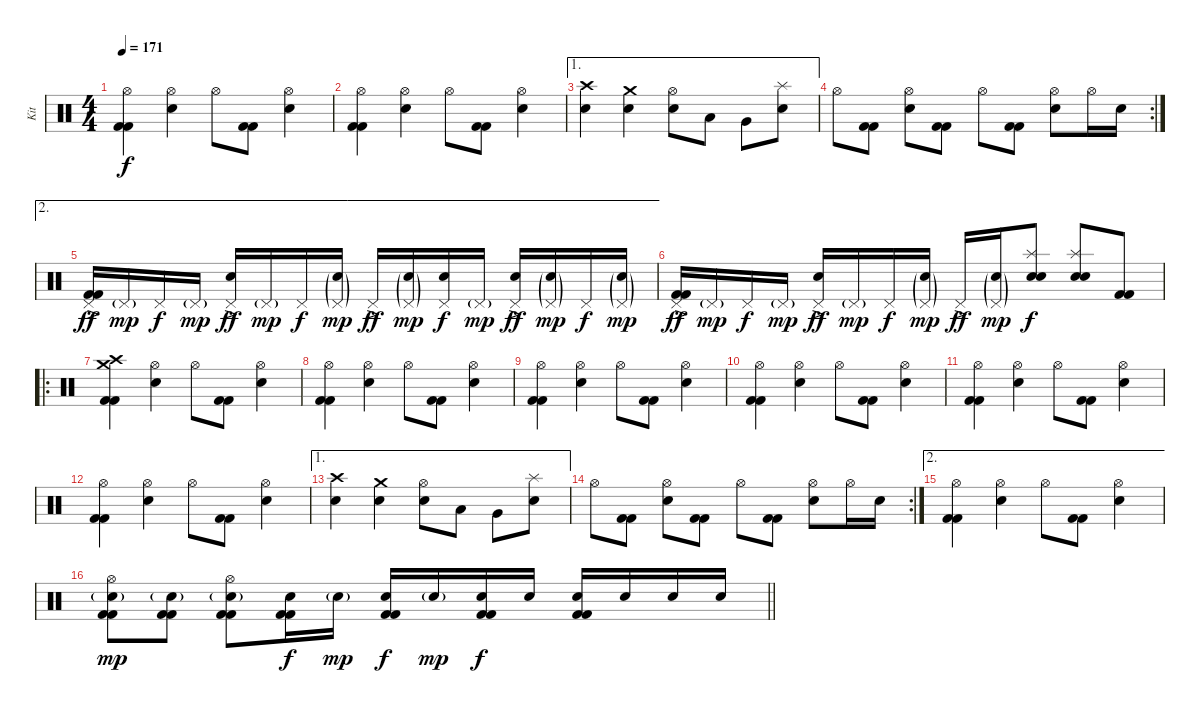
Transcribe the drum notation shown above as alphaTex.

\track ("Kit" "Kit") {instrument percussion}
\staff {score}
\articulation defaults
\ts (4 4)
\tempo 171
\clef neutral
\ks c
("Hi-Hat (open)" "Kick (hit) 2" "Kick (hit) 2").4{dy f} ("Hi-Hat (open)" "Electric Snare (hit)").4 "Hi-Hat (open)".8 ("Kick (hit) 2" "Kick (hit) 2").8 ("Hi-Hat (open)" "Electric Snare (hit)").4 |
("Hi-Hat (open)" "Kick (hit) 2" "Kick (hit) 2").4 ("Hi-Hat (open)" "Electric Snare (hit)").4 "Hi-Hat (open)".8 ("Kick (hit) 2" "Kick (hit) 2").8 ("Hi-Hat (open)" "Electric Snare (hit)").4 |
\ae 1
("Crash high (hit)" "Electric Snare (hit)").4 ("Crash medium (hit)" "Electric Snare (hit)").4 ("Hi-Hat (open)" "Electric Snare (hit)").8 "Low Tom (hit)".8 "Very Low Tom (hit)".8 ("Splash (hit)" "Electric Snare (hit)").8 |
\rc 2 "Hi-Hat (open)".8
("Kick (hit) 2" "Kick (hit) 2").8 ("Hi-Hat (open)" "Electric Snare (hit)").8 ("Kick (hit) 2" "Kick (hit) 2").8 "Hi-Hat (open)".8 ("Kick (hit) 2" "Kick (hit) 2").8 ("Hi-Hat (open)" "Electric Snare (hit)").8 "Hi-Hat (open)".16 "Electric Snare (hit)".16 |
\ae 2
("Pedal Hi-Hat (hit)"{ac} "Kick (hit) 2" "Kick (hit) 2").16{dy ff} "Pedal Hi-Hat (hit)"{g}.16{dy mp} "Pedal Hi-Hat (hit)".16{dy f} "Pedal Hi-Hat (hit)"{g}.16{dy mp} ("Pedal Hi-Hat (hit)"{ac} "Electric Snare (hit)").16{dy ff} "Pedal Hi-Hat (hit)"{g}.16{dy mp} "Pedal Hi-Hat (hit)".16{dy f} ("Pedal Hi-Hat (hit)"{g} "Electric Snare (hit)"{g}).16{dy mp} "Pedal Hi-Hat (hit)"{ac}.16{dy ff} ("Pedal Hi-Hat (hit)"{g} "Electric Snare (hit)"{g}).16{dy mp} ("Pedal Hi-Hat (hit)" "Electric Snare (hit)").16{dy f} "Pedal Hi-Hat (hit)"{g}.16{dy mp} ("Pedal Hi-Hat (hit)"{ac} "Electric Snare (hit)").16{dy ff} ("Pedal Hi-Hat (hit)"{g} "Electric Snare (hit)"{g}).16{dy mp} "Pedal Hi-Hat (hit)".16{dy f} ("Pedal Hi-Hat (hit)"{g} "Electric Snare (hit)"{g}).16{dy mp} |
("Pedal Hi-Hat (hit)"{ac} "Kick (hit) 2" "Kick (hit) 2").16{dy ff} "Pedal Hi-Hat (hit)"{g}.16{dy mp} "Pedal Hi-Hat (hit)".16{dy f} "Pedal Hi-Hat (hit)"{g}.16{dy mp} ("Pedal Hi-Hat (hit)"{ac} "Electric Snare (hit)").16{dy ff} "Pedal Hi-Hat (hit)"{g}.16{dy mp} "Pedal Hi-Hat (hit)".16{dy f} ("Pedal Hi-Hat (hit)"{g} "Electric Snare (hit)"{g}).16{dy mp} "Pedal Hi-Hat (hit)"{ac}.16{dy ff} ("Pedal Hi-Hat (hit)"{g} "Electric Snare (hit)"{g}).16{dy mp} ("Splash (hit)" "Snare (hit) 2" "Electric Snare (hit)").8{bd 240 dy f} ("Splash (hit)" "Snare (hit) 2" "Electric Snare (hit)").8{bd 240} ("Kick (hit) 2" "Kick (hit) 2").8 |
\ro
("Crash medium (hit)" "Crash high (hit)" "Kick (hit) 2" "Kick (hit) 2").4 ("Hi-Hat (open)" "Electric Snare (hit)").4 "Hi-Hat (open)".8 ("Kick (hit) 2" "Kick (hit) 2").8 ("Hi-Hat (open)" "Electric Snare (hit)").4 |
("Hi-Hat (open)" "Kick (hit) 2" "Kick (hit) 2").4 ("Hi-Hat (open)" "Electric Snare (hit)").4 "Hi-Hat (open)".8 ("Kick (hit) 2" "Kick (hit) 2").8 ("Hi-Hat (open)" "Electric Snare (hit)").4 |
("Hi-Hat (open)" "Kick (hit) 2" "Kick (hit) 2").4 ("Hi-Hat (open)" "Electric Snare (hit)").4 "Hi-Hat (open)".8 ("Kick (hit) 2" "Kick (hit) 2").8 ("Hi-Hat (open)" "Electric Snare (hit)").4 |
("Hi-Hat (open)" "Kick (hit) 2" "Kick (hit) 2").4 ("Hi-Hat (open)" "Electric Snare (hit)").4 "Hi-Hat (open)".8 ("Kick (hit) 2" "Kick (hit) 2").8 ("Hi-Hat (open)" "Electric Snare (hit)").4 |
("Hi-Hat (open)" "Kick (hit) 2" "Kick (hit) 2").4 ("Hi-Hat (open)" "Electric Snare (hit)").4 "Hi-Hat (open)".8 ("Kick (hit) 2" "Kick (hit) 2").8 ("Hi-Hat (open)" "Electric Snare (hit)").4 |
("Hi-Hat (open)" "Kick (hit) 2" "Kick (hit) 2").4 ("Hi-Hat (open)" "Electric Snare (hit)").4 "Hi-Hat (open)".8 ("Kick (hit) 2" "Kick (hit) 2").8 ("Hi-Hat (open)" "Electric Snare (hit)").4 |
\ae 1
("Crash high (hit)" "Electric Snare (hit)").4 ("Crash medium (hit)" "Electric Snare (hit)").4 ("Hi-Hat (open)" "Electric Snare (hit)").8 "Low Tom (hit)".8 "Very Low Tom (hit)".8 ("Splash (hit)" "Electric Snare (hit)").8 |
\rc 2 "Hi-Hat (open)".8
("Kick (hit) 2" "Kick (hit) 2").8 ("Hi-Hat (open)" "Electric Snare (hit)").8 ("Kick (hit) 2" "Kick (hit) 2").8 "Hi-Hat (open)".8 ("Kick (hit) 2" "Kick (hit) 2").8 ("Hi-Hat (open)" "Electric Snare (hit)").8 "Hi-Hat (open)".16 "Electric Snare (hit)".16 |
\ae 2
("Hi-Hat (open)" "Kick (hit) 2" "Kick (hit) 2").4 ("Hi-Hat (open)" "Electric Snare (hit)").4 "Hi-Hat (open)".8 ("Kick (hit) 2" "Kick (hit) 2").8 ("Hi-Hat (open)" "Electric Snare (hit)").4 |
\barLineRight lightlight
("Hi-Hat (open)" "Electric Snare (hit)"{g} "Kick (hit) 2" "Kick (hit) 2").8{dy mp} ("Electric Snare (hit)"{g} "Kick (hit) 2" "Kick (hit) 2").8 ("Hi-Hat (open)" "Electric Snare (hit)"{g} "Kick (hit) 2" "Kick (hit) 2").8 ("Electric Snare (hit)" "Kick (hit) 2" "Kick (hit) 2").16{dy f} "Electric Snare (hit)"{g}.16{dy mp} ("Electric Snare (hit)" "Kick (hit) 2" "Kick (hit) 2").16{dy f} "Electric Snare (hit)"{g}.16{dy mp} ("Electric Snare (hit)" "Kick (hit) 2" "Kick (hit) 2").16{dy f} "Electric Snare (hit)".16 ("Electric Snare (hit)" "Kick (hit) 2" "Kick (hit) 2").16 "Electric Snare (hit)".16 "Electric Snare (hit)".16 "Electric Snare (hit)".16
